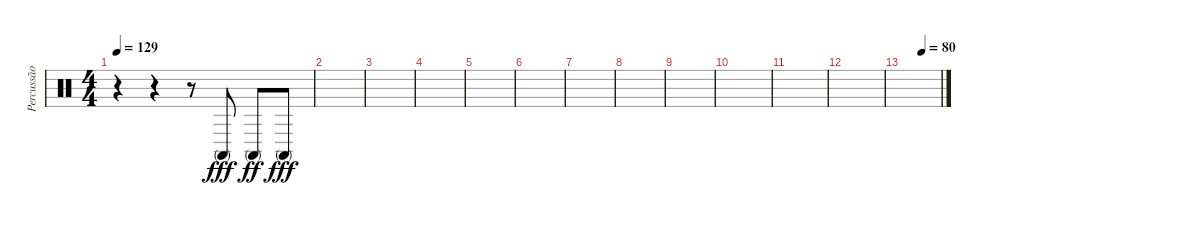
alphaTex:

\track ("Percussão" "Percussão") {instrument percussion}
\staff {score}
\articulation defaults
\ts (4 4)
\tempo 129
\clef neutral
\ks c
r.4{dy fff} r.4 r.8 "Conga high (mute)".8 "Conga high (mute)".8{dy ff} "Conga high (mute)".8{dy fff} |
|
|
|
|
|
|
|
|
|
|
|
\tempo (80 0.5)
